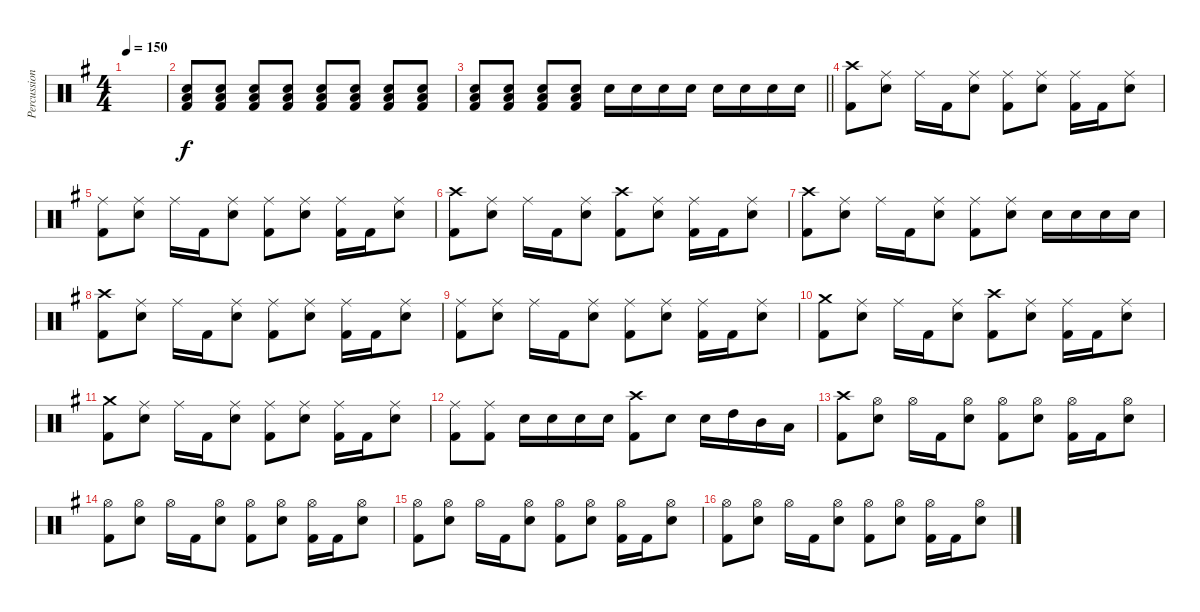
\track ("Percussion" "Percussion") {instrument percussion}
\staff {score}
\articulation defaults
\ts (4 4)
\tempo 150
\clef neutral
\ks g
|
("Low Tom (hit)" "Electric Snare (hit)" "Kick (hit) 2").8 ("Low Tom (hit)" "Electric Snare (hit)" "Kick (hit) 2").8 ("Low Tom (hit)" "Electric Snare (hit)" "Kick (hit) 2").8 ("Low Tom (hit)" "Electric Snare (hit)" "Kick (hit) 2").8 ("Low Tom (hit)" "Electric Snare (hit)" "Kick (hit) 2").8 ("Low Tom (hit)" "Electric Snare (hit)" "Kick (hit) 2").8 ("Low Tom (hit)" "Electric Snare (hit)" "Kick (hit) 2").8 ("Low Tom (hit)" "Electric Snare (hit)" "Kick (hit) 2").8 |
\barLineRight lightlight
("Low Tom (hit)" "Electric Snare (hit)" "Kick (hit) 2").8 ("Low Tom (hit)" "Electric Snare (hit)" "Kick (hit) 2").8 ("Low Tom (hit)" "Electric Snare (hit)" "Kick (hit) 2").8 ("Low Tom (hit)" "Electric Snare (hit)" "Kick (hit) 2").8 "Electric Snare (hit)".16 "Electric Snare (hit)".16 "Electric Snare (hit)".16 "Electric Snare (hit)".16 "Electric Snare (hit)".16 "Electric Snare (hit)".16 "Electric Snare (hit)".16 "Electric Snare (hit)".16 |
("Crash high (hit)" "Kick (hit) 2").8 ("Ride (middle)" "Electric Snare (hit)").8 "Ride (middle)".16 "Kick (hit) 2".16 ("Ride (middle)" "Electric Snare (hit)").8 ("Ride (middle)" "Kick (hit) 2").8 ("Ride (middle)" "Electric Snare (hit)").8 ("Ride (middle)" "Kick (hit) 2").16 "Kick (hit) 2".16 ("Ride (middle)" "Electric Snare (hit)").8 |
("Ride (middle)" "Kick (hit) 2").8 ("Ride (middle)" "Electric Snare (hit)").8 "Ride (middle)".16 "Kick (hit) 2".16 ("Ride (middle)" "Electric Snare (hit)").8 ("Ride (middle)" "Kick (hit) 2").8 ("Ride (middle)" "Electric Snare (hit)").8 ("Ride (middle)" "Kick (hit) 2").16 "Kick (hit) 2".16 ("Ride (middle)" "Electric Snare (hit)").8 |
("Crash high (hit)" "Kick (hit) 2").8 ("Ride (middle)" "Electric Snare (hit)").8 "Ride (middle)".16 "Kick (hit) 2".16 ("Ride (middle)" "Electric Snare (hit)").8 ("Crash high (hit)" "Kick (hit) 2").8 ("Ride (middle)" "Electric Snare (hit)").8 ("Ride (middle)" "Kick (hit) 2").16 "Kick (hit) 2".16 ("Ride (middle)" "Electric Snare (hit)").8 |
("Crash high (hit)" "Kick (hit) 2").8 ("Ride (middle)" "Electric Snare (hit)").8 "Ride (middle)".16 "Kick (hit) 2".16 ("Ride (middle)" "Electric Snare (hit)").8 ("Ride (middle)" "Kick (hit) 2").8 ("Ride (middle)" "Electric Snare (hit)").8 "Electric Snare (hit)".16 "Electric Snare (hit)".16 "Electric Snare (hit)".16 "Electric Snare (hit)".16 |
("Crash high (hit)" "Kick (hit) 2").8 ("Ride (middle)" "Electric Snare (hit)").8 "Ride (middle)".16 "Kick (hit) 2".16 ("Ride (middle)" "Electric Snare (hit)").8 ("Ride (middle)" "Kick (hit) 2").8 ("Ride (middle)" "Electric Snare (hit)").8 ("Ride (middle)" "Kick (hit) 2").16 "Kick (hit) 2".16 ("Ride (middle)" "Electric Snare (hit)").8 |
("Ride (middle)" "Kick (hit) 2").8 ("Ride (middle)" "Electric Snare (hit)").8 "Ride (middle)".16 "Kick (hit) 2".16 ("Ride (middle)" "Electric Snare (hit)").8 ("Ride (middle)" "Kick (hit) 2").8 ("Ride (middle)" "Electric Snare (hit)").8 ("Ride (middle)" "Kick (hit) 2").16 "Kick (hit) 2".16 ("Ride (middle)" "Electric Snare (hit)").8 |
("Crash medium (hit)" "Kick (hit) 2").8 ("Ride (middle)" "Electric Snare (hit)").8 "Ride (middle)".16 "Kick (hit) 2".16 ("Ride (middle)" "Electric Snare (hit)").8 ("Crash high (hit)" "Kick (hit) 2").8 ("Ride (middle)" "Electric Snare (hit)").8 ("Ride (middle)" "Kick (hit) 2").16 "Kick (hit) 2".16 ("Ride (middle)" "Electric Snare (hit)").8 |
("Crash medium (hit)" "Kick (hit) 2").8 ("Ride (middle)" "Electric Snare (hit)").8 "Ride (middle)".16 "Kick (hit) 2".16 ("Ride (middle)" "Electric Snare (hit)").8 ("Ride (middle)" "Kick (hit) 2").8 ("Ride (middle)" "Electric Snare (hit)").8 ("Ride (middle)" "Kick (hit) 2").16 "Kick (hit) 2".16 ("Ride (middle)" "Electric Snare (hit)").8 |
("Ride (middle)" "Kick (hit) 2").8 ("Ride (middle)" "Kick (hit) 2").8 "Electric Snare (hit)".16 "Electric Snare (hit)".16 "Electric Snare (hit)".16 "Electric Snare (hit)".16 ("Crash high (hit)" "Kick (hit) 2").8 "Electric Snare (hit)".8 "Electric Snare (hit)".16 "High Tom (hit)".16 "Mid Tom (hit)".16 "Low Tom (hit)".16 |
("Crash high (hit)" "Kick (hit) 2").8 ("Hi-Hat (open)" "Electric Snare (hit)").8 "Hi-Hat (open)".16 "Kick (hit) 2".16 ("Hi-Hat (open)" "Electric Snare (hit)").8 ("Hi-Hat (open)" "Kick (hit) 2").8 ("Hi-Hat (open)" "Electric Snare (hit)").8 ("Hi-Hat (open)" "Kick (hit) 2").16 "Kick (hit) 2".16 ("Hi-Hat (open)" "Electric Snare (hit)").8 |
("Hi-Hat (open)" "Kick (hit) 2").8 ("Hi-Hat (open)" "Electric Snare (hit)").8 "Hi-Hat (open)".16 "Kick (hit) 2".16 ("Hi-Hat (open)" "Electric Snare (hit)").8 ("Hi-Hat (open)" "Kick (hit) 2").8 ("Hi-Hat (open)" "Electric Snare (hit)").8 ("Hi-Hat (open)" "Kick (hit) 2").16 "Kick (hit) 2".16 ("Hi-Hat (open)" "Electric Snare (hit)").8 |
("Hi-Hat (open)" "Kick (hit) 2").8 ("Hi-Hat (open)" "Electric Snare (hit)").8 "Hi-Hat (open)".16 "Kick (hit) 2".16 ("Hi-Hat (open)" "Electric Snare (hit)").8 ("Hi-Hat (open)" "Kick (hit) 2").8 ("Hi-Hat (open)" "Electric Snare (hit)").8 ("Hi-Hat (open)" "Kick (hit) 2").16 "Kick (hit) 2".16 ("Hi-Hat (open)" "Electric Snare (hit)").8 |
("Hi-Hat (open)" "Kick (hit) 2").8 ("Hi-Hat (open)" "Electric Snare (hit)").8 "Hi-Hat (open)".16 "Kick (hit) 2".16 ("Hi-Hat (open)" "Electric Snare (hit)").8 ("Hi-Hat (open)" "Kick (hit) 2").8 ("Hi-Hat (open)" "Electric Snare (hit)").8 ("Hi-Hat (open)" "Kick (hit) 2").16 "Kick (hit) 2".16 ("Hi-Hat (open)" "Electric Snare (hit)").8
